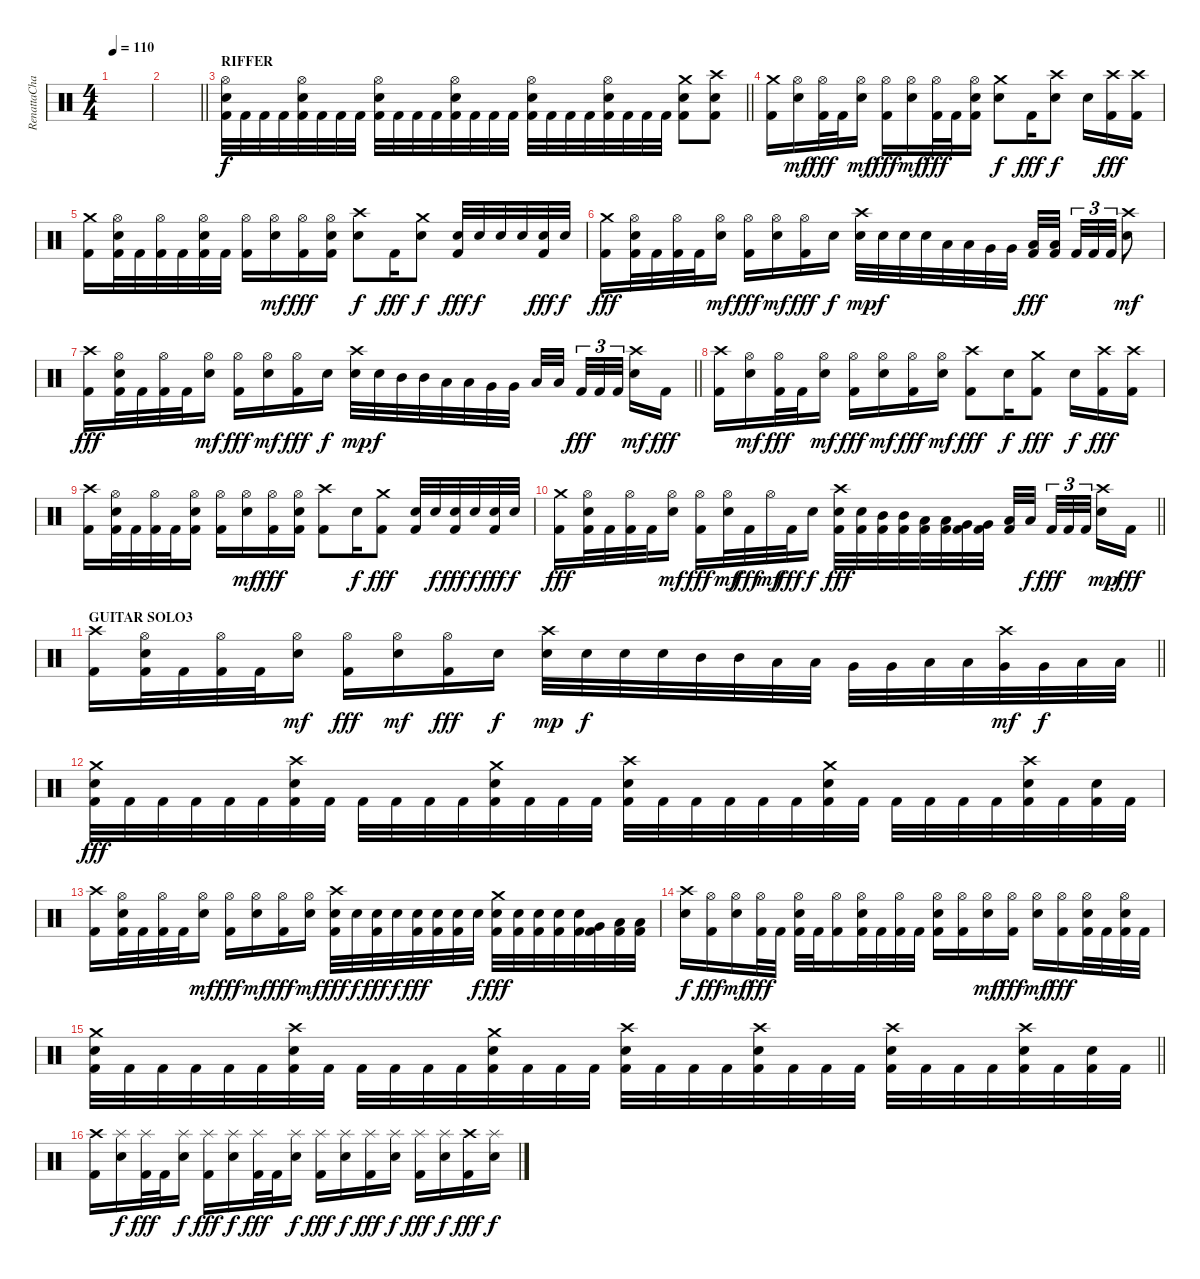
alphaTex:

\track ("RenattaCharat" "RenattaCha") {instrument percussion}
\staff {score}
\articulation defaults
\ts (4 4)
\tempo 110
\clef neutral
\ks c
|
\barLineRight lightlight
|
\section ("" "RIFFER ")
\barLineRight lightlight
("Hi-Hat (open)" "Snare (hit) 2" "Kick (hit) 2").32 "Kick (hit) 2".32 "Kick (hit) 2".32 "Kick (hit) 2".32 ("Hi-Hat (open)" "Snare (hit) 2" "Kick (hit) 2").32 "Kick (hit) 2".32 "Kick (hit) 2".32 "Kick (hit) 2".32 ("Hi-Hat (open)" "Snare (hit) 2" "Kick (hit) 2").32 "Kick (hit) 2".32 "Kick (hit) 2".32 "Kick (hit) 2".32 ("Hi-Hat (open)" "Snare (hit) 2" "Kick (hit) 2").32 "Kick (hit) 2".32 "Kick (hit) 2".32 "Kick (hit) 2".32 ("Hi-Hat (open)" "Snare (hit) 2" "Kick (hit) 2").32 "Kick (hit) 2".32 "Kick (hit) 2".32 "Kick (hit) 2".32 ("Hi-Hat (open)" "Snare (hit) 2" "Kick (hit) 2").32 "Kick (hit) 2".32 "Kick (hit) 2".32 "Kick (hit) 2".32 ("Crash medium (hit)" "Snare (hit) 2" "Kick (hit) 2").8 ("Crash high (hit)" "Snare (hit) 2" "Kick (hit) 2").8 |
("Crash medium (hit)" "Kick (hit) 2").16 ("Hi-Hat (open)" "Snare (hit) 2").16{dy mf} ("Hi-Hat (open)" "Kick (hit) 2").32{dy fff} "Kick (hit) 2".32 ("Hi-Hat (open)" "Snare (hit) 2").16{dy mf} ("Hi-Hat (open)" "Kick (hit) 2").16{dy fff} ("Hi-Hat (open)" "Snare (hit) 2").16{dy mf} ("Hi-Hat (open)" "Kick (hit) 2").32{dy fff} "Kick (hit) 2".32 ("Hi-Hat (open)" "Snare (hit) 2" "Kick (hit) 2").16 ("Crash medium (hit)" "Snare (hit) 2").8{dy f} "Kick (hit) 2".16{dy fff} ("Crash high (hit)" "Snare (hit) 2").8{dy f} "Snare (hit) 2".16 ("Crash high (hit)" "Kick (hit) 2").16{dy fff} ("Crash high (hit)" "Kick (hit) 2").16 |
("Crash medium (hit)" "Kick (hit) 2").16 ("Hi-Hat (open)" "Snare (hit) 2" "Kick (hit) 2").32 "Kick (hit) 2".32 ("Hi-Hat (open)" "Kick (hit) 2").32 "Kick (hit) 2".32 ("Hi-Hat (open)" "Snare (hit) 2" "Kick (hit) 2").32 "Kick (hit) 2".32 ("Hi-Hat (open)" "Kick (hit) 2").16 ("Hi-Hat (open)" "Snare (hit) 2").16{dy mf} ("Hi-Hat (open)" "Kick (hit) 2").16{dy fff} ("Hi-Hat (open)" "Snare (hit) 2" "Kick (hit) 2").16 ("Crash high (hit)" "Snare (hit) 2").8{dy f} "Kick (hit) 2".16{dy fff} ("Crash medium (hit)" "Snare (hit) 2").8{dy f} ("Snare (hit) 2" "Kick (hit) 2").32{dy fff} "Snare (hit) 2".32{dy f} "Snare (hit) 2".32 "Snare (hit) 2".32 ("Snare (hit) 2" "Kick (hit) 2").32{dy fff} "Snare (hit) 2".32{dy f} |
("Crash medium (hit)" "Kick (hit) 2").16{dy fff} ("Hi-Hat (open)" "Snare (hit) 2" "Kick (hit) 2").32 "Kick (hit) 2".32 ("Hi-Hat (open)" "Kick (hit) 2").32 "Kick (hit) 2".32 ("Hi-Hat (open)" "Snare (hit) 2").16{dy mf} ("Hi-Hat (open)" "Kick (hit) 2").16{dy fff} ("Hi-Hat (open)" "Snare (hit) 2").16{dy mf} ("Hi-Hat (open)" "Kick (hit) 2").16{dy fff} "Snare (hit) 2".16{dy f} ("Crash high (hit)" "Snare (hit) 2").32{dy mp} "Snare (hit) 2".32{dy f} "Snare (hit) 2".32 "Snare (hit) 2".32 "Low Tom (hit)".32 "Low Tom (hit)".32 "Very Low Tom (hit)".32 "Very Low Tom (hit)".32 ("Low Floor Tom (hit)" "Kick (hit) 2").32{dy fff} ("Low Floor Tom (hit)" "Kick (hit) 2").32{beam splitsecondary} "Kick (hit) 2".32{tu (3 2)} "Kick (hit) 2".32{tu (3 2)} "Kick (hit) 2".32{tu (3 2)} ("Crash high (hit)" "Snare (hit) 2").8{dy mf} |
\barLineRight lightlight
("Crash high (hit)" "Kick (hit) 2").16{dy fff} ("Hi-Hat (open)" "Snare (hit) 2" "Kick (hit) 2").32 "Kick (hit) 2".32 ("Hi-Hat (open)" "Kick (hit) 2").32 "Kick (hit) 2".32 ("Hi-Hat (open)" "Snare (hit) 2").16{dy mf} ("Hi-Hat (open)" "Kick (hit) 2").16{dy fff} ("Hi-Hat (open)" "Snare (hit) 2").16{dy mf} ("Hi-Hat (open)" "Kick (hit) 2").16{dy fff} "Snare (hit) 2".16{dy f} ("Crash high (hit)" "Snare (hit) 2").32{dy mp} "Snare (hit) 2".32{dy f} "Mid Tom (hit)".32 "Mid Tom (hit)".32 "Low Tom (hit)".32 "Low Tom (hit)".32 "Very Low Tom (hit)".32 "Very Low Tom (hit)".32 "Low Floor Tom (hit)".32 "Low Floor Tom (hit)".32{beam splitsecondary} "Kick (hit) 2".32{tu (3 2) dy fff} "Kick (hit) 2".32{tu (3 2)} "Kick (hit) 2".32{tu (3 2) beam splitsecondary} ("Crash high (hit)" "Snare (hit) 2").16{dy mf} "Kick (hit) 2".16{dy fff} |
("Crash high (hit)" "Kick (hit) 2").16 ("Hi-Hat (open)" "Snare (hit) 2").16{dy mf} ("Hi-Hat (open)" "Kick (hit) 2").32{dy fff} "Kick (hit) 2".32 ("Hi-Hat (open)" "Snare (hit) 2").16{dy mf} ("Hi-Hat (open)" "Kick (hit) 2").16{dy fff} ("Hi-Hat (open)" "Snare (hit) 2").16{dy mf} ("Hi-Hat (open)" "Kick (hit) 2").16{dy fff} ("Hi-Hat (open)" "Snare (hit) 2").16{dy mf} ("Crash high (hit)" "Kick (hit) 2").8{dy fff} "Snare (hit) 2".16{dy f} ("Crash medium (hit)" "Kick (hit) 2").8{dy fff} "Snare (hit) 2".16{dy f} ("Crash high (hit)" "Kick (hit) 2").16{dy fff} ("Crash high (hit)" "Kick (hit) 2").16 |
("Crash high (hit)" "Kick (hit) 2").16 ("Hi-Hat (open)" "Snare (hit) 2" "Kick (hit) 2").32 "Kick (hit) 2".32 ("Hi-Hat (open)" "Kick (hit) 2").32 "Kick (hit) 2".32 ("Hi-Hat (open)" "Snare (hit) 2" "Kick (hit) 2").16 ("Hi-Hat (open)" "Kick (hit) 2").16 ("Hi-Hat (open)" "Snare (hit) 2").16{dy mf} ("Hi-Hat (open)" "Kick (hit) 2").16{dy fff} ("Hi-Hat (open)" "Snare (hit) 2" "Kick (hit) 2").16 ("Crash high (hit)" "Kick (hit) 2").8 "Snare (hit) 2".16{dy f} ("Crash medium (hit)" "Kick (hit) 2").8{dy fff} ("Snare (hit) 2" "Kick (hit) 2").32 "Snare (hit) 2".32{dy f} ("Snare (hit) 2" "Kick (hit) 2").32{dy fff} "Snare (hit) 2".32{dy f} ("Snare (hit) 2" "Kick (hit) 2").32{dy fff} "Snare (hit) 2".32{dy f} |
\barLineRight lightlight
("Crash medium (hit)" "Kick (hit) 2").16{dy fff} ("Hi-Hat (open)" "Snare (hit) 2" "Kick (hit) 2").32 "Kick (hit) 2".32 ("Hi-Hat (open)" "Kick (hit) 2").32 "Kick (hit) 2".32 ("Hi-Hat (open)" "Snare (hit) 2").16{dy mf} ("Hi-Hat (open)" "Kick (hit) 2").16{dy fff} ("Hi-Hat (open)" "Snare (hit) 2").32{dy mf} "Kick (hit) 2".32{dy fff} "Hi-Hat (open)".32{dy mf} "Kick (hit) 2".32{dy fff} "Snare (hit) 2".16{dy f} ("Crash high (hit)" "Snare (hit) 2" "Kick (hit) 2").32{dy fff} ("Snare (hit) 2" "Kick (hit) 2").32 ("Mid Tom (hit)" "Kick (hit) 2").32 ("Mid Tom (hit)" "Kick (hit) 2").32 ("Low Tom (hit)" "Kick (hit) 2").32 ("Low Tom (hit)" "Kick (hit) 2").32 ("Very Low Tom (hit)" "Kick (hit) 2").32 ("Very Low Tom (hit)" "Kick (hit) 2").32 ("Low Floor Tom (hit)" "Kick (hit) 2").32 "Low Floor Tom (hit)".32{dy f beam splitsecondary} "Kick (hit) 2".32{tu (3 2) dy fff} "Kick (hit) 2".32{tu (3 2)} "Kick (hit) 2".32{tu (3 2) beam splitsecondary} ("Crash high (hit)" "Snare (hit) 2").16{dy mp} "Kick (hit) 2".16{dy fff} |
\section ("" "GUITAR SOLO3")
\barLineRight lightlight
("Crash high (hit)" "Kick (hit) 2").16 ("Hi-Hat (open)" "Snare (hit) 2" "Kick (hit) 2").32 "Kick (hit) 2".32 ("Hi-Hat (open)" "Kick (hit) 2").32 "Kick (hit) 2".32 ("Hi-Hat (open)" "Snare (hit) 2").16{dy mf} ("Hi-Hat (open)" "Kick (hit) 2").16{dy fff} ("Hi-Hat (open)" "Snare (hit) 2").16{dy mf} ("Hi-Hat (open)" "Kick (hit) 2").16{dy fff} "Snare (hit) 2".16{dy f} ("Crash high (hit)" "Snare (hit) 2").32{dy mp} "Snare (hit) 2".32{dy f} "Snare (hit) 2".32 "Snare (hit) 2".32 "Mid Tom (hit)".32 "Mid Tom (hit)".32 "Low Tom (hit)".32 "Low Tom (hit)".32 "Very Low Tom (hit)".32 "Very Low Tom (hit)".32 "Low Tom (hit)".32 "Low Tom (hit)".32 ("Crash high (hit)" "Very Low Tom (hit)").32{dy mf} "Very Low Tom (hit)".32{dy f} "Low Floor Tom (hit)".32 "Low Floor Tom (hit)".32 |
("Crash medium (hit)" "Snare (hit) 2" "Kick (hit) 2").32{dy fff} "Kick (hit) 2".32 "Kick (hit) 2".32 "Kick (hit) 2".32 "Kick (hit) 2".32 "Kick (hit) 2".32 ("Crash high (hit)" "Snare (hit) 2" "Kick (hit) 2").32 "Kick (hit) 2".32 "Kick (hit) 2".32 "Kick (hit) 2".32 "Kick (hit) 2".32 "Kick (hit) 2".32 ("Crash medium (hit)" "Snare (hit) 2" "Kick (hit) 2").32 "Kick (hit) 2".32 "Kick (hit) 2".32 "Kick (hit) 2".32 ("Crash high (hit)" "Snare (hit) 2" "Kick (hit) 2").32 "Kick (hit) 2".32 "Kick (hit) 2".32 "Kick (hit) 2".32 "Kick (hit) 2".32 "Kick (hit) 2".32 ("Crash medium (hit)" "Snare (hit) 2" "Kick (hit) 2").32 "Kick (hit) 2".32 "Kick (hit) 2".32 "Kick (hit) 2".32 "Kick (hit) 2".32 "Kick (hit) 2".32 ("Crash high (hit)" "Snare (hit) 2" "Kick (hit) 2").32 "Kick (hit) 2".32 ("Snare (hit) 2" "Kick (hit) 2").32 "Kick (hit) 2".32 |
("Crash high (hit)" "Kick (hit) 2").16 ("Hi-Hat (open)" "Snare (hit) 2" "Kick (hit) 2").32 "Kick (hit) 2".32 ("Hi-Hat (open)" "Kick (hit) 2").32 "Kick (hit) 2".32 ("Hi-Hat (open)" "Snare (hit) 2").16{dy mf} ("Hi-Hat (open)" "Kick (hit) 2").16{dy fff} ("Hi-Hat (open)" "Snare (hit) 2").16{dy mf} ("Hi-Hat (open)" "Kick (hit) 2").16{dy fff} ("Hi-Hat (open)" "Snare (hit) 2").16{dy mf} ("Crash high (hit)" "Snare (hit) 2" "Kick (hit) 2").32{dy fff} "Snare (hit) 2".32{dy f} ("Snare (hit) 2" "Kick (hit) 2").32{dy fff} "Snare (hit) 2".32{dy f} ("Snare (hit) 2" "Kick (hit) 2").32{dy fff} ("Snare (hit) 2" "Kick (hit) 2").32 ("Snare (hit) 2" "Kick (hit) 2").32 "Snare (hit) 2".32{dy f} ("Crash medium (hit)" "Snare (hit) 2" "Kick (hit) 2").32{dy fff} ("Snare (hit) 2" "Kick (hit) 2").32 ("Snare (hit) 2" "Kick (hit) 2").32 ("Snare (hit) 2" "Kick (hit) 2").32 ("Snare (hit) 2" "Kick (hit) 2").32 ("Very Low Tom (hit)" "Kick (hit) 2").32 ("Low Floor Tom (hit)" "Kick (hit) 2").32 ("Low Floor Tom (hit)" "Kick (hit) 2").32 |
("Crash high (hit)" "Snare (hit) 2").16{dy f} ("Hi-Hat (open)" "Kick (hit) 2").16{dy fff} ("Hi-Hat (open)" "Snare (hit) 2").16{dy mf} ("Hi-Hat (open)" "Kick (hit) 2").32{dy fff} "Kick (hit) 2".32 ("Hi-Hat (open)" "Snare (hit) 2" "Kick (hit) 2").32 "Kick (hit) 2".32 ("Hi-Hat (open)" "Kick (hit) 2").16 ("Hi-Hat (open)" "Snare (hit) 2" "Kick (hit) 2").32 "Kick (hit) 2".32 ("Hi-Hat (open)" "Kick (hit) 2").32 "Kick (hit) 2".32 ("Hi-Hat (open)" "Snare (hit) 2" "Kick (hit) 2").16 ("Hi-Hat (open)" "Kick (hit) 2").16 ("Hi-Hat (open)" "Snare (hit) 2").16{dy mf} ("Hi-Hat (open)" "Kick (hit) 2").16{dy fff} ("Hi-Hat (open)" "Snare (hit) 2").16{dy mf} ("Hi-Hat (open)" "Kick (hit) 2").16{dy fff} ("Hi-Hat (open)" "Snare (hit) 2" "Kick (hit) 2").32 "Kick (hit) 2".32 ("Hi-Hat (open)" "Snare (hit) 2" "Kick (hit) 2").32 "Kick (hit) 2".32 |
\barLineRight lightlight
("Crash medium (hit)" "Snare (hit) 2" "Kick (hit) 2").32 "Kick (hit) 2".32 "Kick (hit) 2".32 "Kick (hit) 2".32 "Kick (hit) 2".32 "Kick (hit) 2".32 ("Crash high (hit)" "Snare (hit) 2" "Kick (hit) 2").32 "Kick (hit) 2".32 "Kick (hit) 2".32 "Kick (hit) 2".32 "Kick (hit) 2".32 "Kick (hit) 2".32 ("Crash medium (hit)" "Snare (hit) 2" "Kick (hit) 2").32 "Kick (hit) 2".32 "Kick (hit) 2".32 "Kick (hit) 2".32 ("Crash high (hit)" "Snare (hit) 2" "Kick (hit) 2").32 "Kick (hit) 2".32 "Kick (hit) 2".32 "Kick (hit) 2".32 ("Crash high (hit)" "Snare (hit) 2" "Kick (hit) 2").32 "Kick (hit) 2".32 "Kick (hit) 2".32 "Kick (hit) 2".32 ("Crash high (hit)" "Snare (hit) 2" "Kick (hit) 2").32 "Kick (hit) 2".32 "Kick (hit) 2".32 "Kick (hit) 2".32 ("Crash high (hit)" "Snare (hit) 2" "Kick (hit) 2").32 "Kick (hit) 2".32 ("Snare (hit) 2" "Kick (hit) 2").32 "Kick (hit) 2".32 |
("Crash high (hit)" "Kick (hit) 2").16 ("Splash (hit)" "Snare (hit) 2").16{dy f} ("Splash (hit)" "Kick (hit) 2").32{dy fff} "Kick (hit) 2".32 ("Splash (hit)" "Snare (hit) 2").16{dy f} ("Splash (hit)" "Kick (hit) 2").16{dy fff} ("Splash (hit)" "Snare (hit) 2").16{dy f} ("Splash (hit)" "Kick (hit) 2").32{dy fff} "Kick (hit) 2".32 ("Splash (hit)" "Snare (hit) 2").16{dy f} ("Splash (hit)" "Kick (hit) 2").16{dy fff} ("Splash (hit)" "Snare (hit) 2").16{dy f} ("Splash (hit)" "Kick (hit) 2").16{dy fff} ("Splash (hit)" "Snare (hit) 2").16{dy f} ("Splash (hit)" "Kick (hit) 2").16{dy fff} ("Splash (hit)" "Snare (hit) 2").16{dy f} ("Crash high (hit)" "Kick (hit) 2").16{dy fff} ("Splash (hit)" "Snare (hit) 2").16{dy f}
